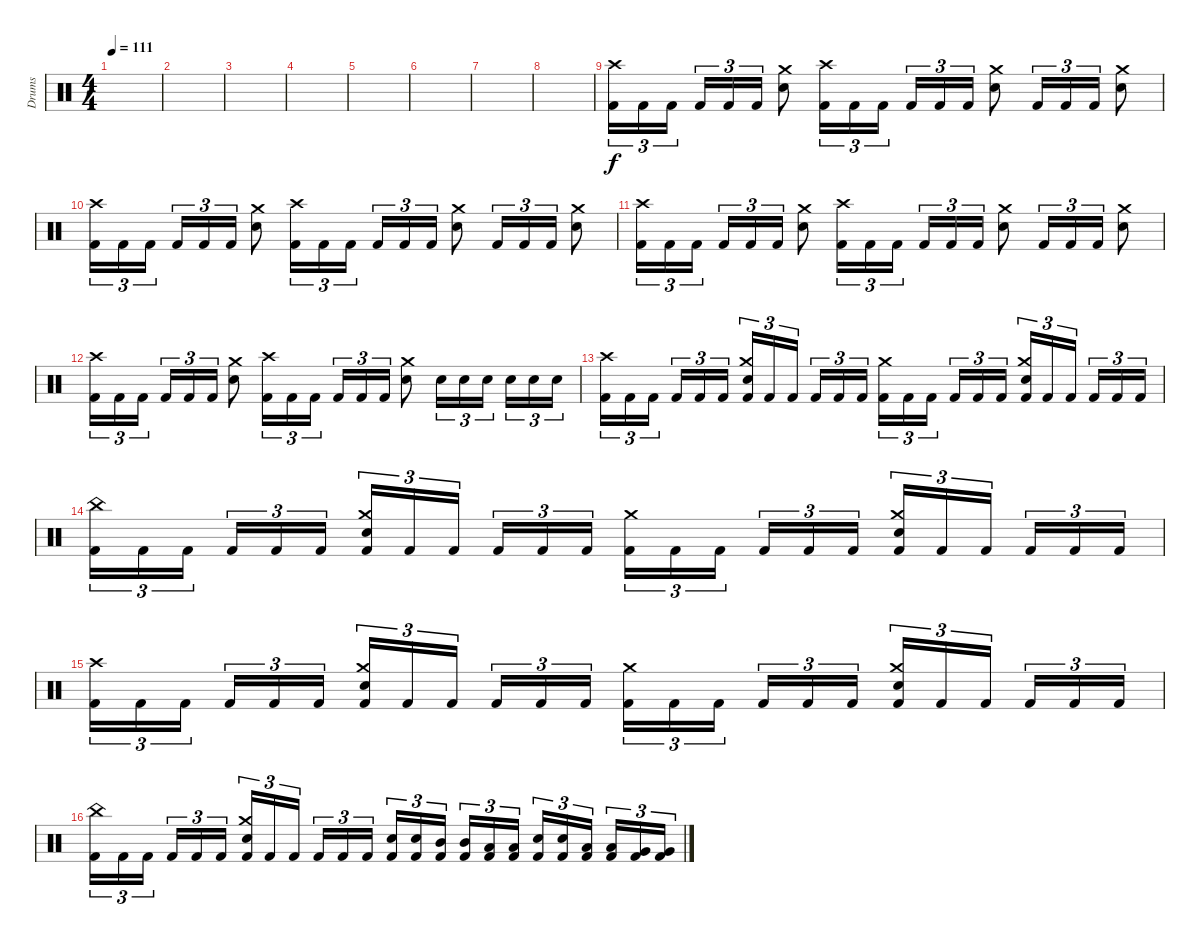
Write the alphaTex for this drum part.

\track ("Drums" "Drums") {instrument percussion}
\staff
\articulation defaults
\ts (4 4)
\tempo 111
\clef neutral
\ks c
|
|
|
|
|
|
|
|
("Crash high (hit)" "Kick (hit) 2").16{tu (3 2)} "Kick (hit) 2".16{tu (3 2)} "Kick (hit) 2".16{tu (3 2) beam splitsecondary} "Kick (hit) 2".16{tu (3 2)} "Kick (hit) 2".16{tu (3 2)} "Kick (hit) 2".16{tu (3 2)} ("Crash medium (hit)" "Electric Snare (hit)").8 ("Crash high (hit)" "Kick (hit) 2").16{tu (3 2)} "Kick (hit) 2".16{tu (3 2)} "Kick (hit) 2".16{tu (3 2)} "Kick (hit) 2".16{tu (3 2)} "Kick (hit) 2".16{tu (3 2)} "Kick (hit) 2".16{tu (3 2)} ("Crash medium (hit)" "Electric Snare (hit)").8 "Kick (hit) 2".16{tu (3 2)} "Kick (hit) 2".16{tu (3 2)} "Kick (hit) 2".16{tu (3 2)} ("Crash medium (hit)" "Electric Snare (hit)").8 |
("Crash high (hit)" "Kick (hit) 2").16{tu (3 2)} "Kick (hit) 2".16{tu (3 2)} "Kick (hit) 2".16{tu (3 2) beam splitsecondary} "Kick (hit) 2".16{tu (3 2)} "Kick (hit) 2".16{tu (3 2)} "Kick (hit) 2".16{tu (3 2)} ("Crash medium (hit)" "Electric Snare (hit)").8 ("Crash high (hit)" "Kick (hit) 2").16{tu (3 2)} "Kick (hit) 2".16{tu (3 2)} "Kick (hit) 2".16{tu (3 2)} "Kick (hit) 2".16{tu (3 2)} "Kick (hit) 2".16{tu (3 2)} "Kick (hit) 2".16{tu (3 2)} ("Crash medium (hit)" "Electric Snare (hit)").8 "Kick (hit) 2".16{tu (3 2)} "Kick (hit) 2".16{tu (3 2)} "Kick (hit) 2".16{tu (3 2)} ("Crash medium (hit)" "Electric Snare (hit)").8 |
("Crash high (hit)" "Kick (hit) 2").16{tu (3 2)} "Kick (hit) 2".16{tu (3 2)} "Kick (hit) 2".16{tu (3 2) beam splitsecondary} "Kick (hit) 2".16{tu (3 2)} "Kick (hit) 2".16{tu (3 2)} "Kick (hit) 2".16{tu (3 2)} ("Crash medium (hit)" "Electric Snare (hit)").8 ("Crash high (hit)" "Kick (hit) 2").16{tu (3 2)} "Kick (hit) 2".16{tu (3 2)} "Kick (hit) 2".16{tu (3 2)} "Kick (hit) 2".16{tu (3 2)} "Kick (hit) 2".16{tu (3 2)} "Kick (hit) 2".16{tu (3 2)} ("Crash medium (hit)" "Electric Snare (hit)").8 "Kick (hit) 2".16{tu (3 2)} "Kick (hit) 2".16{tu (3 2)} "Kick (hit) 2".16{tu (3 2)} ("Crash medium (hit)" "Electric Snare (hit)").8 |
("Crash high (hit)" "Kick (hit) 2").16{tu (3 2)} "Kick (hit) 2".16{tu (3 2)} "Kick (hit) 2".16{tu (3 2) beam splitsecondary} "Kick (hit) 2".16{tu (3 2)} "Kick (hit) 2".16{tu (3 2)} "Kick (hit) 2".16{tu (3 2)} ("Crash medium (hit)" "Electric Snare (hit)").8 ("Crash high (hit)" "Kick (hit) 2").16{tu (3 2)} "Kick (hit) 2".16{tu (3 2)} "Kick (hit) 2".16{tu (3 2)} "Kick (hit) 2".16{tu (3 2)} "Kick (hit) 2".16{tu (3 2)} "Kick (hit) 2".16{tu (3 2)} ("Crash medium (hit)" "Electric Snare (hit)").8 "Electric Snare (hit)".16{tu (3 2)} "Electric Snare (hit)".16{tu (3 2)} "Electric Snare (hit)".16{tu (3 2) beam splitsecondary} "Electric Snare (hit)".16{tu (3 2)} "Electric Snare (hit)".16{tu (3 2)} "Electric Snare (hit)".16{tu (3 2)} |
("Crash high (hit)" "Kick (hit) 2").16{tu (3 2)} "Kick (hit) 2".16{tu (3 2)} "Kick (hit) 2".16{tu (3 2) beam splitsecondary} "Kick (hit) 2".16{tu (3 2)} "Kick (hit) 2".16{tu (3 2)} "Kick (hit) 2".16{tu (3 2)} ("Crash medium (hit)" "Electric Snare (hit)" "Kick (hit) 2").16{tu (3 2)} "Kick (hit) 2".16{tu (3 2)} "Kick (hit) 2".16{tu (3 2) beam splitsecondary} "Kick (hit) 2".16{tu (3 2)} "Kick (hit) 2".16{tu (3 2)} "Kick (hit) 2".16{tu (3 2)} ("Crash medium (hit)" "Kick (hit) 2").16{tu (3 2)} "Kick (hit) 2".16{tu (3 2)} "Kick (hit) 2".16{tu (3 2) beam splitsecondary} "Kick (hit) 2".16{tu (3 2)} "Kick (hit) 2".16{tu (3 2)} "Kick (hit) 2".16{tu (3 2)} ("Crash medium (hit)" "Electric Snare (hit)" "Kick (hit) 2").16{tu (3 2)} "Kick (hit) 2".16{tu (3 2)} "Kick (hit) 2".16{tu (3 2) beam splitsecondary} "Kick (hit) 2".16{tu (3 2)} "Kick (hit) 2".16{tu (3 2)} "Kick (hit) 2".16{tu (3 2)} |
("China (hit)" "Kick (hit) 2").16{tu (3 2)} "Kick (hit) 2".16{tu (3 2)} "Kick (hit) 2".16{tu (3 2) beam splitsecondary} "Kick (hit) 2".16{tu (3 2)} "Kick (hit) 2".16{tu (3 2)} "Kick (hit) 2".16{tu (3 2)} ("Crash medium (hit)" "Electric Snare (hit)" "Kick (hit) 2").16{tu (3 2)} "Kick (hit) 2".16{tu (3 2)} "Kick (hit) 2".16{tu (3 2) beam splitsecondary} "Kick (hit) 2".16{tu (3 2)} "Kick (hit) 2".16{tu (3 2)} "Kick (hit) 2".16{tu (3 2)} ("Crash medium (hit)" "Kick (hit) 2").16{tu (3 2)} "Kick (hit) 2".16{tu (3 2)} "Kick (hit) 2".16{tu (3 2) beam splitsecondary} "Kick (hit) 2".16{tu (3 2)} "Kick (hit) 2".16{tu (3 2)} "Kick (hit) 2".16{tu (3 2)} ("Crash medium (hit)" "Electric Snare (hit)" "Kick (hit) 2").16{tu (3 2)} "Kick (hit) 2".16{tu (3 2)} "Kick (hit) 2".16{tu (3 2) beam splitsecondary} "Kick (hit) 2".16{tu (3 2)} "Kick (hit) 2".16{tu (3 2)} "Kick (hit) 2".16{tu (3 2)} |
("Crash high (hit)" "Kick (hit) 2").16{tu (3 2)} "Kick (hit) 2".16{tu (3 2)} "Kick (hit) 2".16{tu (3 2) beam splitsecondary} "Kick (hit) 2".16{tu (3 2)} "Kick (hit) 2".16{tu (3 2)} "Kick (hit) 2".16{tu (3 2)} ("Crash medium (hit)" "Electric Snare (hit)" "Kick (hit) 2").16{tu (3 2)} "Kick (hit) 2".16{tu (3 2)} "Kick (hit) 2".16{tu (3 2) beam splitsecondary} "Kick (hit) 2".16{tu (3 2)} "Kick (hit) 2".16{tu (3 2)} "Kick (hit) 2".16{tu (3 2)} ("Crash medium (hit)" "Kick (hit) 2").16{tu (3 2)} "Kick (hit) 2".16{tu (3 2)} "Kick (hit) 2".16{tu (3 2) beam splitsecondary} "Kick (hit) 2".16{tu (3 2)} "Kick (hit) 2".16{tu (3 2)} "Kick (hit) 2".16{tu (3 2)} ("Crash medium (hit)" "Electric Snare (hit)" "Kick (hit) 2").16{tu (3 2)} "Kick (hit) 2".16{tu (3 2)} "Kick (hit) 2".16{tu (3 2) beam splitsecondary} "Kick (hit) 2".16{tu (3 2)} "Kick (hit) 2".16{tu (3 2)} "Kick (hit) 2".16{tu (3 2)} |
("China (hit)" "Kick (hit) 2").16{tu (3 2)} "Kick (hit) 2".16{tu (3 2)} "Kick (hit) 2".16{tu (3 2) beam splitsecondary} "Kick (hit) 2".16{tu (3 2)} "Kick (hit) 2".16{tu (3 2)} "Kick (hit) 2".16{tu (3 2)} ("Crash medium (hit)" "Electric Snare (hit)" "Kick (hit) 2").16{tu (3 2)} "Kick (hit) 2".16{tu (3 2)} "Kick (hit) 2".16{tu (3 2) beam splitsecondary} "Kick (hit) 2".16{tu (3 2)} "Kick (hit) 2".16{tu (3 2)} "Kick (hit) 2".16{tu (3 2)} ("Electric Snare (hit)" "Kick (hit) 2").16{tu (3 2)} ("Electric Snare (hit)" "Kick (hit) 2").16{tu (3 2)} ("Mid Tom (hit)" "Kick (hit) 2").16{tu (3 2) beam splitsecondary} ("Mid Tom (hit)" "Kick (hit) 2").16{tu (3 2)} ("Low Tom (hit)" "Kick (hit) 2").16{tu (3 2)} ("Low Tom (hit)" "Kick (hit) 2").16{tu (3 2)} ("Electric Snare (hit)" "Kick (hit) 2").16{tu (3 2)} ("Electric Snare (hit)" "Kick (hit) 2").16{tu (3 2)} ("Low Tom (hit)" "Kick (hit) 2").16{tu (3 2) beam splitsecondary} ("Low Tom (hit)" "Kick (hit) 2").16{tu (3 2)} ("Very Low Tom (hit)" "Kick (hit) 2").16{tu (3 2)} ("Very Low Tom (hit)" "Kick (hit) 2").16{tu (3 2)}
